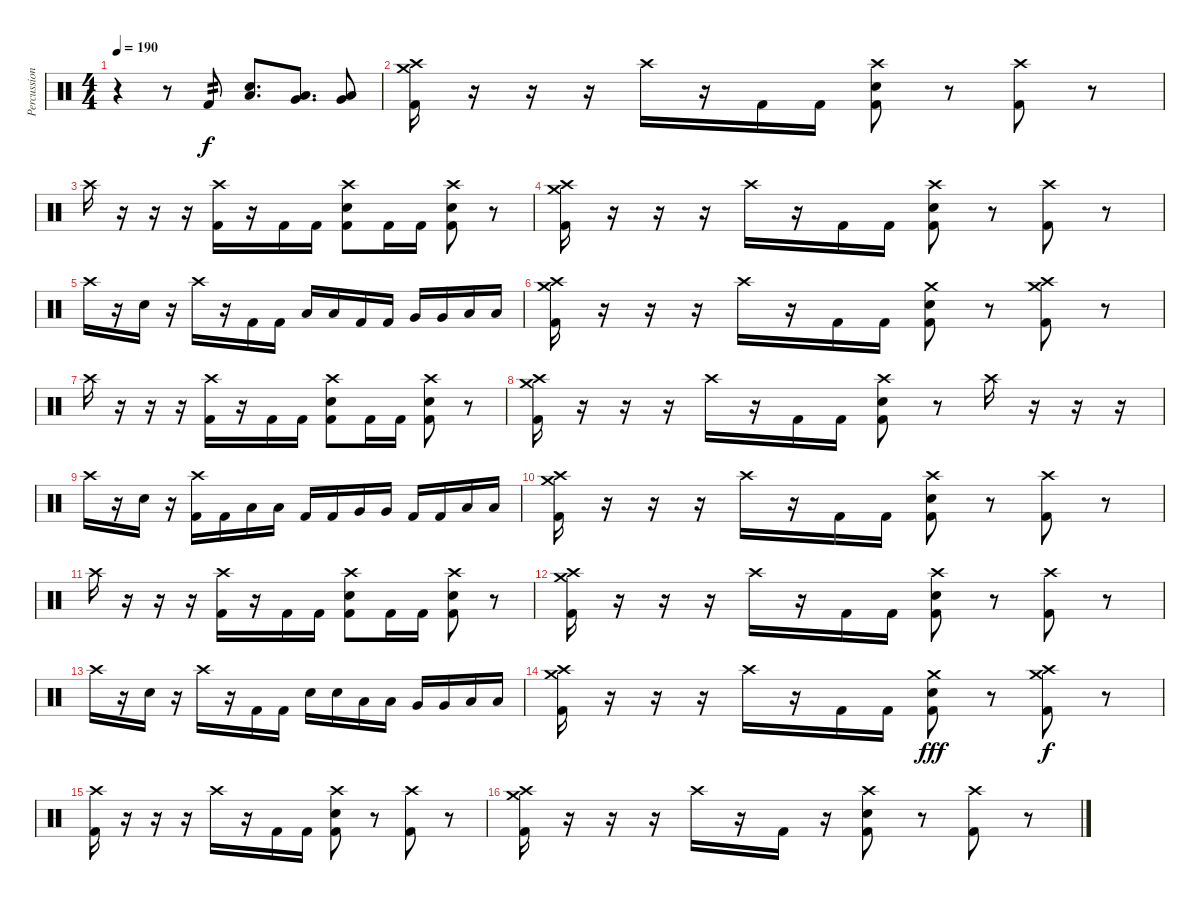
\track ("Percussion" "Percussion") {instrument percussion}
\staff {score}
\articulation defaults
\ts (4 4)
\tempo 190
\clef neutral
\ks c
r.4{dy f} r.8 "Kick (hit) 2".8{tp 2} ("Electric Snare (hit)" "Low Tom (hit)").8{d} ("Low Tom (hit)" "Very Low Tom (hit)").8{d} ("Very Low Tom (hit)" "Low Floor Tom (hit)").8 |
("Crash medium (hit)" "Crash high (hit)" "Kick (hit) 2").16 r.16 r.16 r.16 "Crash high (hit)".16 r.16 "Kick (hit) 2".16 "Kick (hit) 2".16 ("Crash high (hit)" "Electric Snare (hit)" "Kick (hit) 2").8 r.8 ("Crash high (hit)" "Kick (hit) 2").8 r.8 |
"Crash high (hit)".16 r.16 r.16 r.16 ("Crash high (hit)" "Kick (hit) 2").16 r.16 "Kick (hit) 2".16 "Kick (hit) 2".16 ("Crash high (hit)" "Electric Snare (hit)" "Kick (hit) 2").8 "Kick (hit) 2".16 "Kick (hit) 2".16 ("Crash high (hit)" "Electric Snare (hit)" "Kick (hit) 2").8 r.8 |
("Crash medium (hit)" "Crash high (hit)" "Kick (hit) 2").16 r.16 r.16 r.16 "Crash high (hit)".16 r.16 "Kick (hit) 2".16 "Kick (hit) 2".16 ("Crash high (hit)" "Electric Snare (hit)" "Kick (hit) 2").8 r.8 ("Crash high (hit)" "Kick (hit) 2").8 r.8 |
"Crash high (hit)".16 r.16 "Electric Snare (hit)".16 r.16 "Crash high (hit)".16 r.16 "Kick (hit) 2".16 "Kick (hit) 2".16 "Low Tom (hit)".16 "Low Tom (hit)".16 "Kick (hit) 2".16 "Kick (hit) 2".16 "Very Low Tom (hit)".16 "Very Low Tom (hit)".16 "Low Floor Tom (hit)".16 "Low Floor Tom (hit)".16 |
("Crash medium (hit)" "Crash high (hit)" "Kick (hit) 2").16 r.16 r.16 r.16 "Crash high (hit)".16 r.16 "Kick (hit) 2".16 "Kick (hit) 2".16 ("Crash medium (hit)" "Electric Snare (hit)" "Kick (hit) 2").8 r.8 ("Crash medium (hit)" "Crash high (hit)" "Kick (hit) 2").8 r.8 |
"Crash high (hit)".16 r.16 r.16 r.16 ("Crash high (hit)" "Kick (hit) 2").16 r.16 "Kick (hit) 2".16 "Kick (hit) 2".16 ("Crash high (hit)" "Electric Snare (hit)" "Kick (hit) 2").8 "Kick (hit) 2".16 "Kick (hit) 2".16 ("Crash high (hit)" "Electric Snare (hit)" "Kick (hit) 2").8 r.8 |
("Crash medium (hit)" "Crash high (hit)" "Kick (hit) 2").16 r.16 r.16 r.16 "Crash high (hit)".16 r.16 "Kick (hit) 2".16 "Kick (hit) 2".16 ("Crash high (hit)" "Electric Snare (hit)" "Kick (hit) 2").8 r.8 "Crash high (hit)".16 r.16 r.16 r.16 |
"Crash high (hit)".16 r.16 "Electric Snare (hit)".16 r.16 ("Crash high (hit)" "Kick (hit) 2").16 "Kick (hit) 2".16 "Low Tom (hit)".16 "Low Tom (hit)".16 "Kick (hit) 2".16 "Kick (hit) 2".16 "Very Low Tom (hit)".16 "Very Low Tom (hit)".16 "Kick (hit) 2".16 "Kick (hit) 2".16 "Low Floor Tom (hit)".16 "Low Floor Tom (hit)".16 |
("Crash medium (hit)" "Crash high (hit)" "Kick (hit) 2").16 r.16 r.16 r.16 "Crash high (hit)".16 r.16 "Kick (hit) 2".16 "Kick (hit) 2".16 ("Crash high (hit)" "Electric Snare (hit)" "Kick (hit) 2").8 r.8 ("Crash high (hit)" "Kick (hit) 2").8 r.8 |
"Crash high (hit)".16 r.16 r.16 r.16 ("Crash high (hit)" "Kick (hit) 2").16 r.16 "Kick (hit) 2".16 "Kick (hit) 2".16 ("Crash high (hit)" "Electric Snare (hit)" "Kick (hit) 2").8 "Kick (hit) 2".16 "Kick (hit) 2".16 ("Crash high (hit)" "Electric Snare (hit)" "Kick (hit) 2").8 r.8 |
("Crash medium (hit)" "Crash high (hit)" "Kick (hit) 2").16 r.16 r.16 r.16 "Crash high (hit)".16 r.16 "Kick (hit) 2".16 "Kick (hit) 2".16 ("Crash high (hit)" "Electric Snare (hit)" "Kick (hit) 2").8 r.8 ("Crash high (hit)" "Kick (hit) 2").8 r.8 |
"Crash high (hit)".16 r.16 "Electric Snare (hit)".16 r.16 "Crash high (hit)".16 r.16 "Kick (hit) 2".16 "Kick (hit) 2".16 "Electric Snare (hit)".16 "Electric Snare (hit)".16 "Low Tom (hit)".16 "Low Tom (hit)".16 "Very Low Tom (hit)".16 "Very Low Tom (hit)".16 "Low Floor Tom (hit)".16 "Low Floor Tom (hit)".16 |
("Crash medium (hit)" "Crash high (hit)" "Kick (hit) 2").16 r.16 r.16 r.16 "Crash high (hit)".16 r.16 "Kick (hit) 2".16 "Kick (hit) 2".16 ("Crash medium (hit)" "Electric Snare (hit)" "Kick (hit) 2").8{dy fff} r.8 ("Crash medium (hit)" "Crash high (hit)" "Kick (hit) 2").8{dy f} r.8 |
("Crash high (hit)" "Kick (hit) 2").16 r.16 r.16 r.16 "Crash high (hit)".16 r.16 "Kick (hit) 2".16 "Kick (hit) 2".16 ("Crash high (hit)" "Electric Snare (hit)" "Kick (hit) 2").8 r.8 ("Crash high (hit)" "Kick (hit) 2").8 r.8 |
("Crash medium (hit)" "Crash high (hit)" "Kick (hit) 2").16 r.16 r.16 r.16 "Crash high (hit)".16 r.16 "Kick (hit) 2".16 r.16 ("Crash high (hit)" "Electric Snare (hit)" "Kick (hit) 2").8 r.8 ("Crash high (hit)" "Kick (hit) 2").8 r.8
